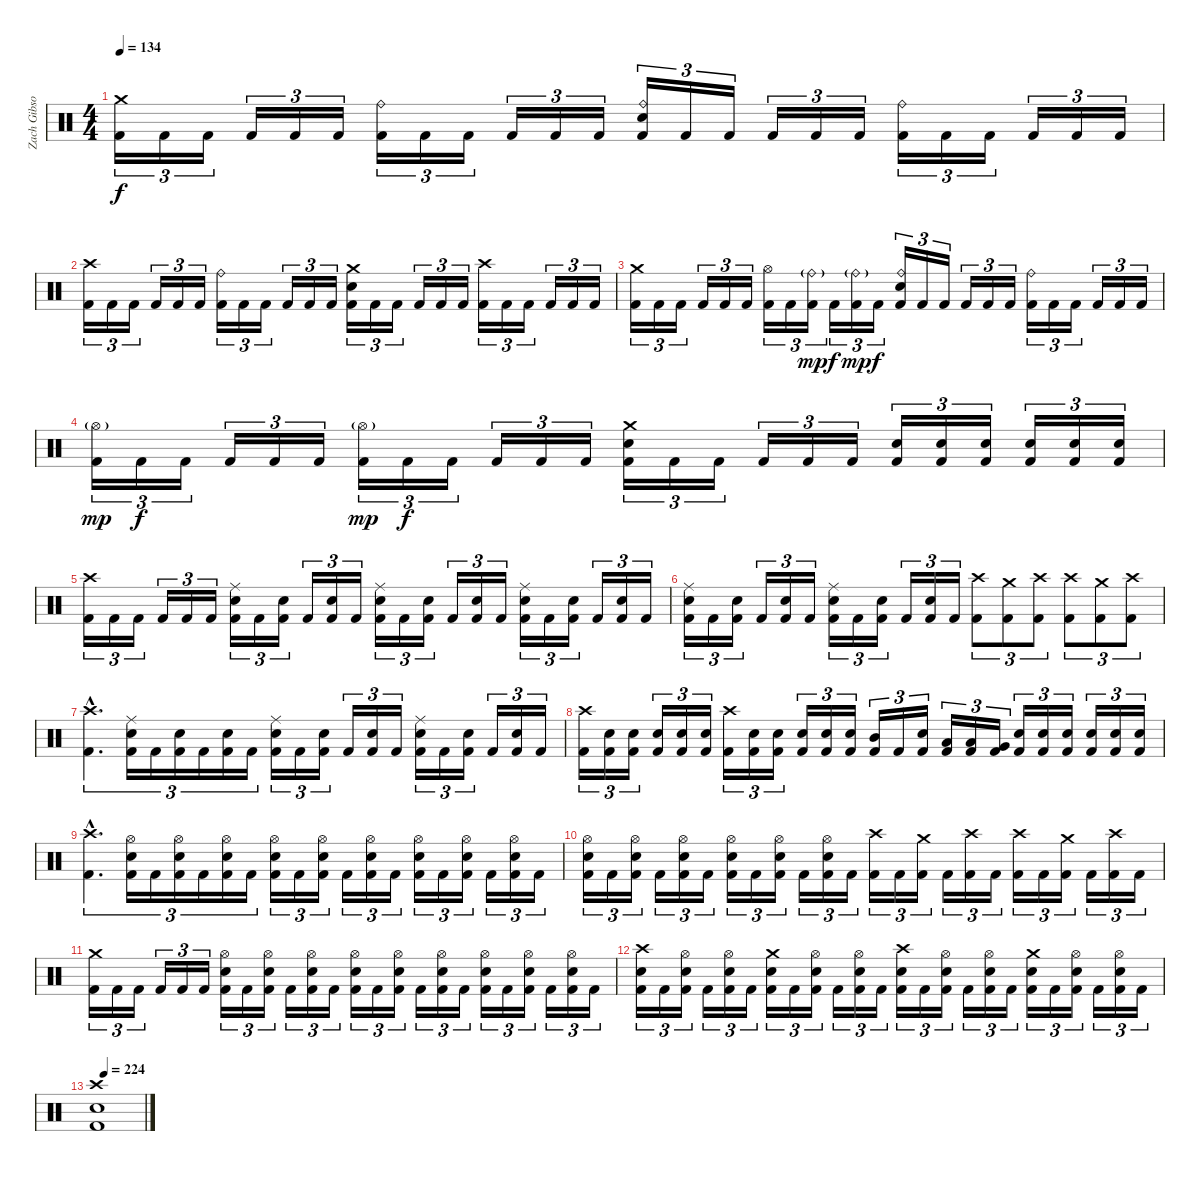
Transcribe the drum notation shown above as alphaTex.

\track ("Zach Gibson (Ex-Drums)" "Zach Gibso") {instrument percussion}
\staff {score}
\articulation defaults
\ts (4 4)
\tempo 134
\clef neutral
\ks c
("Crash medium (hit)" "Kick (hit) 2").16{tu (3 2) dy f} "Kick (hit) 2".16{tu (3 2)} "Kick (hit) 2".16{tu (3 2)} "Kick (hit) 2".16{tu (3 2)} "Kick (hit) 2".16{tu (3 2)} "Kick (hit) 2".16{tu (3 2)} ("Ride (bell)" "Kick (hit) 2").16{tu (3 2)} "Kick (hit) 2".16{tu (3 2)} "Kick (hit) 2".16{tu (3 2)} "Kick (hit) 2".16{tu (3 2)} "Kick (hit) 2".16{tu (3 2)} "Kick (hit) 2".16{tu (3 2)} ("Ride (bell)" "Snare (hit) 2" "Kick (hit) 2").16{tu (3 2)} "Kick (hit) 2".16{tu (3 2)} "Kick (hit) 2".16{tu (3 2)} "Kick (hit) 2".16{tu (3 2)} "Kick (hit) 2".16{tu (3 2)} "Kick (hit) 2".16{tu (3 2)} ("Ride (bell)" "Kick (hit) 2").16{tu (3 2)} "Kick (hit) 2".16{tu (3 2)} "Kick (hit) 2".16{tu (3 2)} "Kick (hit) 2".16{tu (3 2)} "Kick (hit) 2".16{tu (3 2)} "Kick (hit) 2".16{tu (3 2)} |
("Crash high (hit)" "Kick (hit) 2").16{tu (3 2)} "Kick (hit) 2".16{tu (3 2)} "Kick (hit) 2".16{tu (3 2)} "Kick (hit) 2".16{tu (3 2)} "Kick (hit) 2".16{tu (3 2)} "Kick (hit) 2".16{tu (3 2)} ("Ride (bell)" "Kick (hit) 2").16{tu (3 2)} "Kick (hit) 2".16{tu (3 2)} "Kick (hit) 2".16{tu (3 2)} "Kick (hit) 2".16{tu (3 2)} "Kick (hit) 2".16{tu (3 2)} "Kick (hit) 2".16{tu (3 2)} ("Crash medium (hit)" "Snare (hit) 2" "Kick (hit) 2").16{tu (3 2)} "Kick (hit) 2".16{tu (3 2)} "Kick (hit) 2".16{tu (3 2)} "Kick (hit) 2".16{tu (3 2)} "Kick (hit) 2".16{tu (3 2)} "Kick (hit) 2".16{tu (3 2)} ("Crash high (hit)" "Kick (hit) 2").16{tu (3 2)} "Kick (hit) 2".16{tu (3 2)} "Kick (hit) 2".16{tu (3 2)} "Kick (hit) 2".16{tu (3 2)} "Kick (hit) 2".16{tu (3 2)} "Kick (hit) 2".16{tu (3 2)} |
("Crash medium (hit)" "Kick (hit) 2").16{tu (3 2)} "Kick (hit) 2".16{tu (3 2)} "Kick (hit) 2".16{tu (3 2)} "Kick (hit) 2".16{tu (3 2)} "Kick (hit) 2".16{tu (3 2)} "Kick (hit) 2".16{tu (3 2)} ("Hi-Hat (open)" "Kick (hit) 2").16{tu (3 2)} "Kick (hit) 2".16{tu (3 2)} ("Ride (bell)"{g} "Kick (hit) 2").16{tu (3 2) dy mp} "Kick (hit) 2".16{tu (3 2) dy f} ("Ride (bell)"{g} "Kick (hit) 2").16{tu (3 2) dy mp} "Kick (hit) 2".16{tu (3 2) dy f} ("Ride (bell)" "Snare (hit) 2" "Kick (hit) 2").16{tu (3 2)} "Kick (hit) 2".16{tu (3 2)} "Kick (hit) 2".16{tu (3 2)} "Kick (hit) 2".16{tu (3 2)} "Kick (hit) 2".16{tu (3 2)} "Kick (hit) 2".16{tu (3 2)} ("Ride (bell)" "Kick (hit) 2").16{tu (3 2)} "Kick (hit) 2".16{tu (3 2)} "Kick (hit) 2".16{tu (3 2)} "Kick (hit) 2".16{tu (3 2)} "Kick (hit) 2".16{tu (3 2)} "Kick (hit) 2".16{tu (3 2)} |
("Hi-Hat (open)"{g} "Kick (hit) 2").16{tu (3 2) dy mp} "Kick (hit) 2".16{tu (3 2) dy f} "Kick (hit) 2".16{tu (3 2)} "Kick (hit) 2".16{tu (3 2)} "Kick (hit) 2".16{tu (3 2)} "Kick (hit) 2".16{tu (3 2)} ("Hi-Hat (open)"{g} "Kick (hit) 2").16{tu (3 2) dy mp} "Kick (hit) 2".16{tu (3 2) dy f} "Kick (hit) 2".16{tu (3 2)} "Kick (hit) 2".16{tu (3 2)} "Kick (hit) 2".16{tu (3 2)} "Kick (hit) 2".16{tu (3 2)} ("Crash medium (hit)" "Snare (hit) 2" "Kick (hit) 2").16{tu (3 2)} "Kick (hit) 2".16{tu (3 2)} "Kick (hit) 2".16{tu (3 2)} "Kick (hit) 2".16{tu (3 2)} "Kick (hit) 2".16{tu (3 2)} "Kick (hit) 2".16{tu (3 2)} ("Snare (hit) 2" "Kick (hit) 2").16{tu (3 2)} ("Snare (hit) 2" "Kick (hit) 2").16{tu (3 2)} ("Snare (hit) 2" "Kick (hit) 2").16{tu (3 2)} ("Snare (hit) 2" "Kick (hit) 2").16{tu (3 2)} ("Snare (hit) 2" "Kick (hit) 2").16{tu (3 2)} ("Snare (hit) 2" "Kick (hit) 2").16{tu (3 2)} |
("Crash high (hit)" "Kick (hit) 2").16{tu (3 2)} "Kick (hit) 2".16{tu (3 2)} "Kick (hit) 2".16{tu (3 2)} "Kick (hit) 2".16{tu (3 2)} "Kick (hit) 2".16{tu (3 2)} "Kick (hit) 2".16{tu (3 2)} ("Ride (middle)" "Snare (hit) 2" "Kick (hit) 2").16{tu (3 2)} "Kick (hit) 2".16{tu (3 2)} ("Snare (hit) 2" "Kick (hit) 2").16{tu (3 2)} "Kick (hit) 2".16{tu (3 2)} ("Snare (hit) 2" "Kick (hit) 2").16{tu (3 2)} "Kick (hit) 2".16{tu (3 2)} ("Snare (hit) 2" "Ride (middle)" "Kick (hit) 2").16{tu (3 2)} "Kick (hit) 2".16{tu (3 2)} ("Snare (hit) 2" "Kick (hit) 2").16{tu (3 2)} "Kick (hit) 2".16{tu (3 2)} ("Snare (hit) 2" "Kick (hit) 2").16{tu (3 2)} "Kick (hit) 2".16{tu (3 2)} ("Snare (hit) 2" "Ride (middle)" "Kick (hit) 2").16{tu (3 2)} "Kick (hit) 2".16{tu (3 2)} ("Snare (hit) 2" "Kick (hit) 2").16{tu (3 2)} "Kick (hit) 2".16{tu (3 2)} ("Snare (hit) 2" "Kick (hit) 2").16{tu (3 2)} "Kick (hit) 2".16{tu (3 2)} |
("Ride (middle)" "Snare (hit) 2" "Kick (hit) 2").16{tu (3 2)} "Kick (hit) 2".16{tu (3 2)} ("Snare (hit) 2" "Kick (hit) 2").16{tu (3 2)} "Kick (hit) 2".16{tu (3 2)} ("Snare (hit) 2" "Kick (hit) 2").16{tu (3 2)} "Kick (hit) 2".16{tu (3 2)} ("Ride (middle)" "Snare (hit) 2" "Kick (hit) 2").16{tu (3 2)} "Kick (hit) 2".16{tu (3 2)} ("Snare (hit) 2" "Kick (hit) 2").16{tu (3 2)} "Kick (hit) 2".16{tu (3 2)} ("Snare (hit) 2" "Kick (hit) 2").16{tu (3 2)} "Kick (hit) 2".16{tu (3 2)} ("Crash high (hit)" "Kick (hit) 2").8{tu (3 2)} ("Crash medium (hit)" "Kick (hit) 2").8{tu (3 2)} ("Crash high (hit)" "Kick (hit) 2").8{tu (3 2)} ("Crash high (hit)" "Kick (hit) 2").8{tu (3 2)} ("Crash medium (hit)" "Kick (hit) 2").8{tu (3 2)} ("Crash high (hit)" "Kick (hit) 2").8{tu (3 2)} |
("Crash high (hit)"{hac} "Kick (hit) 2"{hac}).4{d tu (3 2)} ("Ride (middle)" "Snare (hit) 2" "Kick (hit) 2").16{tu (3 2)} "Kick (hit) 2".16{tu (3 2)} ("Snare (hit) 2" "Kick (hit) 2").16{tu (3 2)} "Kick (hit) 2".16{tu (3 2)} ("Snare (hit) 2" "Kick (hit) 2").16{tu (3 2)} "Kick (hit) 2".16{tu (3 2)} ("Snare (hit) 2" "Ride (middle)" "Kick (hit) 2").16{tu (3 2)} "Kick (hit) 2".16{tu (3 2)} ("Snare (hit) 2" "Kick (hit) 2").16{tu (3 2)} "Kick (hit) 2".16{tu (3 2)} ("Snare (hit) 2" "Kick (hit) 2").16{tu (3 2)} "Kick (hit) 2".16{tu (3 2)} ("Snare (hit) 2" "Ride (middle)" "Kick (hit) 2").16{tu (3 2)} "Kick (hit) 2".16{tu (3 2)} ("Snare (hit) 2" "Kick (hit) 2").16{tu (3 2)} "Kick (hit) 2".16{tu (3 2)} ("Snare (hit) 2" "Kick (hit) 2").16{tu (3 2)} "Kick (hit) 2".16{tu (3 2)} |
("Crash high (hit)" "Kick (hit) 2").16{tu (3 2)} ("Snare (hit) 2" "Kick (hit) 2").16{tu (3 2)} ("Snare (hit) 2" "Kick (hit) 2").16{tu (3 2)} ("Snare (hit) 2" "Kick (hit) 2").16{tu (3 2)} ("Snare (hit) 2" "Kick (hit) 2").16{tu (3 2)} ("Snare (hit) 2" "Kick (hit) 2").16{tu (3 2)} ("Crash high (hit)" "Kick (hit) 2").16{tu (3 2)} ("Snare (hit) 2" "Kick (hit) 2").16{tu (3 2)} ("Snare (hit) 2" "Kick (hit) 2").16{tu (3 2)} ("Snare (hit) 2" "Kick (hit) 2").16{tu (3 2)} ("Snare (hit) 2" "Kick (hit) 2").16{tu (3 2)} ("Snare (hit) 2" "Kick (hit) 2").16{tu (3 2)} ("Mid Tom (hit)" "Kick (hit) 2").16{tu (3 2)} "Kick (hit) 2".16{tu (3 2)} ("Snare (hit) 2" "Kick (hit) 2").16{tu (3 2)} ("Low Tom (hit)" "Kick (hit) 2").16{tu (3 2)} ("Low Tom (hit)" "Kick (hit) 2").16{tu (3 2)} ("Very Low Tom (hit)" "Kick (hit) 2").16{tu (3 2)} ("Snare (hit) 2" "Kick (hit) 2").16{tu (3 2)} ("Snare (hit) 2" "Kick (hit) 2").16{tu (3 2)} ("Snare (hit) 2" "Kick (hit) 2").16{tu (3 2)} ("Snare (hit) 2" "Kick (hit) 2").16{tu (3 2)} ("Snare (hit) 2" "Kick (hit) 2").16{tu (3 2)} ("Snare (hit) 2" "Kick (hit) 2").16{tu (3 2)} |
("Crash high (hit)"{hac} "Kick (hit) 2"{hac}).4{d tu (3 2)} ("Hi-Hat (open)" "Snare (hit) 2" "Kick (hit) 2").16{tu (3 2)} "Kick (hit) 2".16{tu (3 2)} ("Hi-Hat (open)" "Snare (hit) 2" "Kick (hit) 2").16{tu (3 2)} "Kick (hit) 2".16{tu (3 2)} ("Hi-Hat (open)" "Snare (hit) 2" "Kick (hit) 2").16{tu (3 2)} "Kick (hit) 2".16{tu (3 2)} ("Snare (hit) 2" "Hi-Hat (open)" "Kick (hit) 2").16{tu (3 2)} "Kick (hit) 2".16{tu (3 2)} ("Hi-Hat (open)" "Snare (hit) 2" "Kick (hit) 2").16{tu (3 2)} "Kick (hit) 2".16{tu (3 2)} ("Hi-Hat (open)" "Snare (hit) 2" "Kick (hit) 2").16{tu (3 2)} "Kick (hit) 2".16{tu (3 2)} ("Snare (hit) 2" "Hi-Hat (open)" "Kick (hit) 2").16{tu (3 2)} "Kick (hit) 2".16{tu (3 2)} ("Hi-Hat (open)" "Snare (hit) 2" "Kick (hit) 2").16{tu (3 2)} "Kick (hit) 2".16{tu (3 2)} ("Hi-Hat (open)" "Snare (hit) 2" "Kick (hit) 2").16{tu (3 2)} "Kick (hit) 2".16{tu (3 2)} |
("Hi-Hat (open)" "Snare (hit) 2" "Kick (hit) 2").16{tu (3 2)} "Kick (hit) 2".16{tu (3 2)} ("Hi-Hat (open)" "Snare (hit) 2" "Kick (hit) 2").16{tu (3 2)} "Kick (hit) 2".16{tu (3 2)} ("Hi-Hat (open)" "Snare (hit) 2" "Kick (hit) 2").16{tu (3 2)} "Kick (hit) 2".16{tu (3 2)} ("Hi-Hat (open)" "Snare (hit) 2" "Kick (hit) 2").16{tu (3 2)} "Kick (hit) 2".16{tu (3 2)} ("Hi-Hat (open)" "Snare (hit) 2" "Kick (hit) 2").16{tu (3 2)} "Kick (hit) 2".16{tu (3 2)} ("Hi-Hat (open)" "Snare (hit) 2" "Kick (hit) 2").16{tu (3 2)} "Kick (hit) 2".16{tu (3 2)} ("Crash high (hit)" "Kick (hit) 2").16{tu (3 2)} "Kick (hit) 2".16{tu (3 2)} ("Crash medium (hit)" "Kick (hit) 2").16{tu (3 2)} "Kick (hit) 2".16{tu (3 2)} ("Crash high (hit)" "Kick (hit) 2").16{tu (3 2)} "Kick (hit) 2".16{tu (3 2)} ("Crash high (hit)" "Kick (hit) 2").16{tu (3 2)} "Kick (hit) 2".16{tu (3 2)} ("Crash medium (hit)" "Kick (hit) 2").16{tu (3 2)} "Kick (hit) 2".16{tu (3 2)} ("Crash high (hit)" "Kick (hit) 2").16{tu (3 2)} "Kick (hit) 2".16{tu (3 2)} |
("Crash medium (hit)" "Kick (hit) 2").16{tu (3 2)} "Kick (hit) 2".16{tu (3 2)} "Kick (hit) 2".16{tu (3 2)} "Kick (hit) 2".16{tu (3 2)} "Kick (hit) 2".16{tu (3 2)} "Kick (hit) 2".16{tu (3 2)} ("Snare (hit) 2" "Hi-Hat (open)" "Kick (hit) 2").16{tu (3 2)} "Kick (hit) 2".16{tu (3 2)} ("Hi-Hat (open)" "Snare (hit) 2" "Kick (hit) 2").16{tu (3 2)} "Kick (hit) 2".16{tu (3 2)} ("Hi-Hat (open)" "Snare (hit) 2" "Kick (hit) 2").16{tu (3 2)} "Kick (hit) 2".16{tu (3 2)} ("Snare (hit) 2" "Hi-Hat (open)" "Kick (hit) 2").16{tu (3 2)} "Kick (hit) 2".16{tu (3 2)} ("Hi-Hat (open)" "Snare (hit) 2" "Kick (hit) 2").16{tu (3 2)} "Kick (hit) 2".16{tu (3 2)} ("Hi-Hat (open)" "Snare (hit) 2" "Kick (hit) 2").16{tu (3 2)} "Kick (hit) 2".16{tu (3 2)} ("Hi-Hat (open)" "Snare (hit) 2" "Kick (hit) 2").16{tu (3 2)} "Kick (hit) 2".16{tu (3 2)} ("Hi-Hat (open)" "Snare (hit) 2" "Kick (hit) 2").16{tu (3 2)} "Kick (hit) 2".16{tu (3 2)} ("Hi-Hat (open)" "Snare (hit) 2" "Kick (hit) 2").16{tu (3 2)} "Kick (hit) 2".16{tu (3 2)} |
("Crash high (hit)" "Snare (hit) 2" "Kick (hit) 2").16{tu (3 2)} "Kick (hit) 2".16{tu (3 2)} ("Hi-Hat (open)" "Snare (hit) 2" "Kick (hit) 2").16{tu (3 2)} "Kick (hit) 2".16{tu (3 2)} ("Hi-Hat (open)" "Snare (hit) 2" "Kick (hit) 2").16{tu (3 2)} "Kick (hit) 2".16{tu (3 2)} ("Crash medium (hit)" "Snare (hit) 2" "Kick (hit) 2").16{tu (3 2)} "Kick (hit) 2".16{tu (3 2)} ("Hi-Hat (open)" "Snare (hit) 2" "Kick (hit) 2").16{tu (3 2)} "Kick (hit) 2".16{tu (3 2)} ("Hi-Hat (open)" "Snare (hit) 2" "Kick (hit) 2").16{tu (3 2)} "Kick (hit) 2".16{tu (3 2)} ("Crash high (hit)" "Snare (hit) 2" "Kick (hit) 2").16{tu (3 2)} "Kick (hit) 2".16{tu (3 2)} ("Hi-Hat (open)" "Snare (hit) 2" "Kick (hit) 2").16{tu (3 2)} "Kick (hit) 2".16{tu (3 2)} ("Hi-Hat (open)" "Snare (hit) 2" "Kick (hit) 2").16{tu (3 2)} "Kick (hit) 2".16{tu (3 2)} ("Crash medium (hit)" "Snare (hit) 2" "Kick (hit) 2").16{tu (3 2)} "Kick (hit) 2".16{tu (3 2)} ("Hi-Hat (open)" "Snare (hit) 2" "Kick (hit) 2").16{tu (3 2)} "Kick (hit) 2".16{tu (3 2)} ("Hi-Hat (open)" "Snare (hit) 2" "Kick (hit) 2").16{tu (3 2)} "Kick (hit) 2".16{tu (3 2)} |
\tempo (224 0.16666666666666666)
("Crash high (hit)" "Snare (hit) 2" "Kick (hit) 2").1
